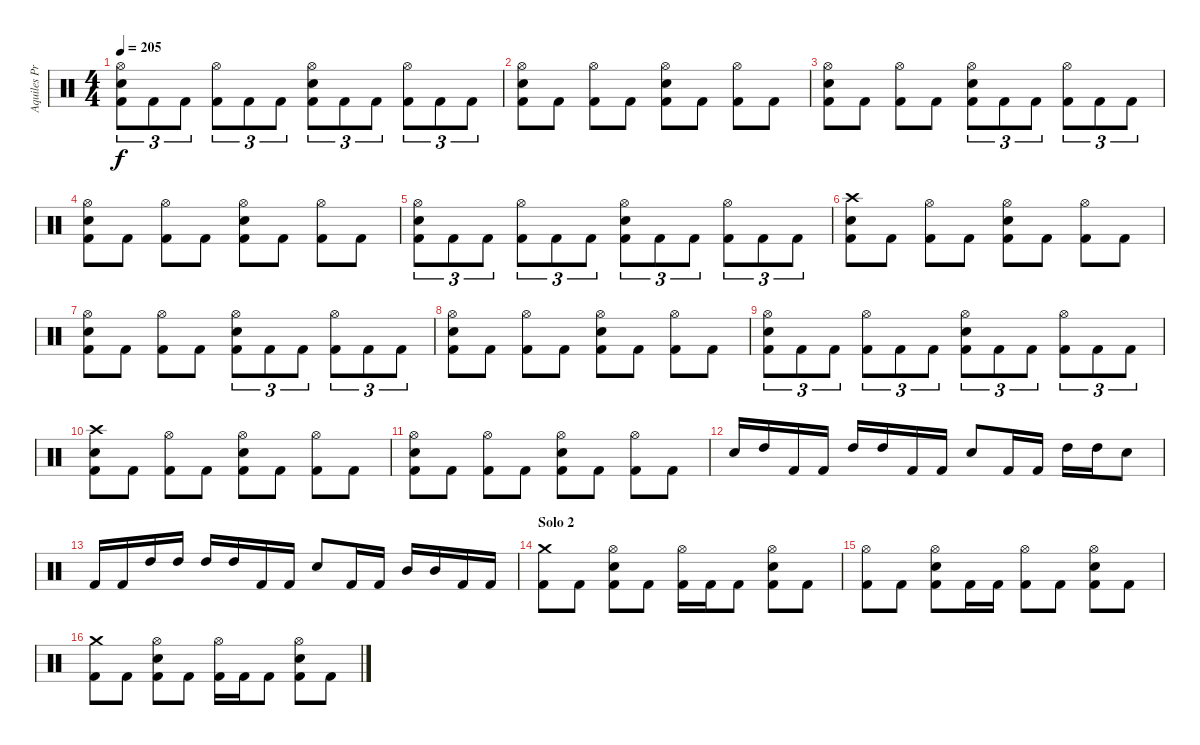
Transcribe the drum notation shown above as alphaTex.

\track ("Aquiles Priester" "Aquiles Pr") {instrument percussion}
\staff {score}
\articulation defaults
\ts (4 4)
\tempo 205
\clef neutral
\ks c
("Hi-Hat (open)" "Electric Snare (hit)" "Kick (hit) 2").8{tu (3 2) dy f} "Kick (hit) 2".8{tu (3 2)} "Kick (hit) 2".8{tu (3 2)} ("Hi-Hat (open)" "Kick (hit) 2").8{tu (3 2)} "Kick (hit) 2".8{tu (3 2)} "Kick (hit) 2".8{tu (3 2)} ("Hi-Hat (open)" "Electric Snare (hit)" "Kick (hit) 2").8{tu (3 2)} "Kick (hit) 2".8{tu (3 2)} "Kick (hit) 2".8{tu (3 2)} ("Hi-Hat (open)" "Kick (hit) 2").8{tu (3 2)} "Kick (hit) 2".8{tu (3 2)} "Kick (hit) 2".8{tu (3 2)} |
("Hi-Hat (open)" "Electric Snare (hit)" "Kick (hit) 2").8 "Kick (hit) 2".8 ("Hi-Hat (open)" "Kick (hit) 2").8 "Kick (hit) 2".8 ("Hi-Hat (open)" "Electric Snare (hit)" "Kick (hit) 2").8 "Kick (hit) 2".8 ("Hi-Hat (open)" "Kick (hit) 2").8 "Kick (hit) 2".8 |
("Hi-Hat (open)" "Electric Snare (hit)" "Kick (hit) 2").8 "Kick (hit) 2".8 ("Hi-Hat (open)" "Kick (hit) 2").8 "Kick (hit) 2".8 ("Hi-Hat (open)" "Electric Snare (hit)" "Kick (hit) 2").8{tu (3 2)} "Kick (hit) 2".8{tu (3 2)} "Kick (hit) 2".8{tu (3 2)} ("Hi-Hat (open)" "Kick (hit) 2").8{tu (3 2)} "Kick (hit) 2".8{tu (3 2)} "Kick (hit) 2".8{tu (3 2)} |
("Hi-Hat (open)" "Electric Snare (hit)" "Kick (hit) 2").8 "Kick (hit) 2".8 ("Hi-Hat (open)" "Kick (hit) 2").8 "Kick (hit) 2".8 ("Hi-Hat (open)" "Electric Snare (hit)" "Kick (hit) 2").8 "Kick (hit) 2".8 ("Hi-Hat (open)" "Kick (hit) 2").8 "Kick (hit) 2".8 |
("Hi-Hat (open)" "Electric Snare (hit)" "Kick (hit) 2").8{tu (3 2)} "Kick (hit) 2".8{tu (3 2)} "Kick (hit) 2".8{tu (3 2)} ("Hi-Hat (open)" "Kick (hit) 2").8{tu (3 2)} "Kick (hit) 2".8{tu (3 2)} "Kick (hit) 2".8{tu (3 2)} ("Hi-Hat (open)" "Electric Snare (hit)" "Kick (hit) 2").8{tu (3 2)} "Kick (hit) 2".8{tu (3 2)} "Kick (hit) 2".8{tu (3 2)} ("Hi-Hat (open)" "Kick (hit) 2").8{tu (3 2)} "Kick (hit) 2".8{tu (3 2)} "Kick (hit) 2".8{tu (3 2)} |
("Crash high (hit)" "Electric Snare (hit)" "Kick (hit) 2").8 "Kick (hit) 2".8 ("Hi-Hat (open)" "Kick (hit) 2").8 "Kick (hit) 2".8 ("Hi-Hat (open)" "Electric Snare (hit)" "Kick (hit) 2").8 "Kick (hit) 2".8 ("Hi-Hat (open)" "Kick (hit) 2").8 "Kick (hit) 2".8 |
("Hi-Hat (open)" "Electric Snare (hit)" "Kick (hit) 2").8 "Kick (hit) 2".8 ("Hi-Hat (open)" "Kick (hit) 2").8 "Kick (hit) 2".8 ("Hi-Hat (open)" "Electric Snare (hit)" "Kick (hit) 2").8{tu (3 2)} "Kick (hit) 2".8{tu (3 2)} "Kick (hit) 2".8{tu (3 2)} ("Hi-Hat (open)" "Kick (hit) 2").8{tu (3 2)} "Kick (hit) 2".8{tu (3 2)} "Kick (hit) 2".8{tu (3 2)} |
("Hi-Hat (open)" "Electric Snare (hit)" "Kick (hit) 2").8 "Kick (hit) 2".8 ("Hi-Hat (open)" "Kick (hit) 2").8 "Kick (hit) 2".8 ("Hi-Hat (open)" "Electric Snare (hit)" "Kick (hit) 2").8 "Kick (hit) 2".8 ("Hi-Hat (open)" "Kick (hit) 2").8 "Kick (hit) 2".8 |
("Hi-Hat (open)" "Electric Snare (hit)" "Kick (hit) 2").8{tu (3 2)} "Kick (hit) 2".8{tu (3 2)} "Kick (hit) 2".8{tu (3 2)} ("Hi-Hat (open)" "Kick (hit) 2").8{tu (3 2)} "Kick (hit) 2".8{tu (3 2)} "Kick (hit) 2".8{tu (3 2)} ("Hi-Hat (open)" "Electric Snare (hit)" "Kick (hit) 2").8{tu (3 2)} "Kick (hit) 2".8{tu (3 2)} "Kick (hit) 2".8{tu (3 2)} ("Hi-Hat (open)" "Kick (hit) 2").8{tu (3 2)} "Kick (hit) 2".8{tu (3 2)} "Kick (hit) 2".8{tu (3 2)} |
("Crash high (hit)" "Electric Snare (hit)" "Kick (hit) 2").8 "Kick (hit) 2".8 ("Hi-Hat (open)" "Kick (hit) 2").8 "Kick (hit) 2".8 ("Hi-Hat (open)" "Electric Snare (hit)" "Kick (hit) 2").8 "Kick (hit) 2".8 ("Hi-Hat (open)" "Kick (hit) 2").8 "Kick (hit) 2".8 |
("Hi-Hat (open)" "Electric Snare (hit)" "Kick (hit) 2").8 "Kick (hit) 2".8 ("Hi-Hat (open)" "Kick (hit) 2").8 "Kick (hit) 2".8 ("Hi-Hat (open)" "Electric Snare (hit)" "Kick (hit) 2").8 "Kick (hit) 2".8 ("Hi-Hat (open)" "Kick (hit) 2").8 "Kick (hit) 2".8 |
"Electric Snare (hit)".16 "High Tom (hit)".16 "Kick (hit) 2".16 "Kick (hit) 2".16 "High Tom (hit)".16 "High Tom (hit)".16 "Kick (hit) 2".16 "Kick (hit) 2".16 "Electric Snare (hit)".8 "Kick (hit) 2".16 "Kick (hit) 2".16 "High Tom (hit)".16 "High Tom (hit)".16 "Electric Snare (hit)".8 |
"Kick (hit) 2".16 "Kick (hit) 2".16 "High Tom (hit)".16 "High Tom (hit)".16 "High Tom (hit)".16 "High Tom (hit)".16 "Kick (hit) 2".16 "Kick (hit) 2".16 "Electric Snare (hit)".8 "Kick (hit) 2".16 "Kick (hit) 2".16 "Mid Tom (hit)".16 "Mid Tom (hit)".16 "Kick (hit) 2".16 "Kick (hit) 2".16 |
\section ("" "Solo 2")
("Crash medium (hit)" "Kick (hit) 2").8 "Kick (hit) 2".8 ("Hi-Hat (open)" "Electric Snare (hit)" "Kick (hit) 2").8 "Kick (hit) 2".8 ("Hi-Hat (open)" "Kick (hit) 2").16 "Kick (hit) 2".16 "Kick (hit) 2".8 ("Hi-Hat (open)" "Electric Snare (hit)" "Kick (hit) 2").8 "Kick (hit) 2".8 |
("Hi-Hat (open)" "Kick (hit) 2").8 "Kick (hit) 2".8 ("Hi-Hat (open)" "Electric Snare (hit)" "Kick (hit) 2").8 "Kick (hit) 2".16 "Kick (hit) 2".16 ("Hi-Hat (open)" "Kick (hit) 2").8 "Kick (hit) 2".8 ("Hi-Hat (open)" "Electric Snare (hit)" "Kick (hit) 2").8 "Kick (hit) 2".8 |
("Crash medium (hit)" "Kick (hit) 2").8 "Kick (hit) 2".8 ("Hi-Hat (open)" "Electric Snare (hit)" "Kick (hit) 2").8 "Kick (hit) 2".8 ("Hi-Hat (open)" "Kick (hit) 2").16 "Kick (hit) 2".16 "Kick (hit) 2".8 ("Hi-Hat (open)" "Electric Snare (hit)" "Kick (hit) 2").8 "Kick (hit) 2".8
